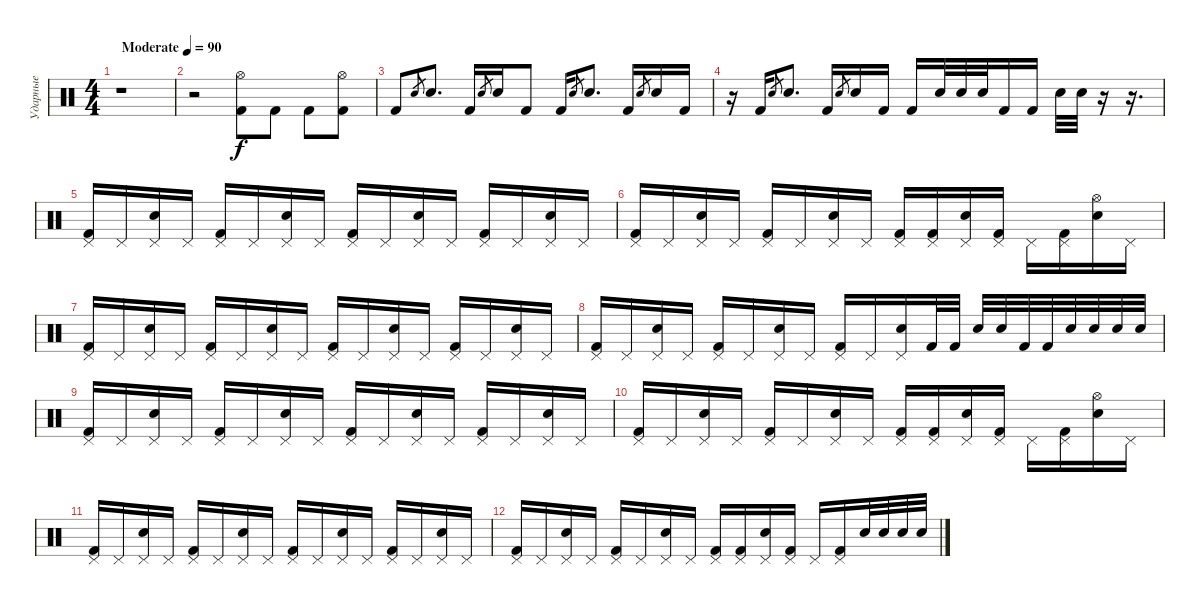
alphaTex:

\track ("Ударные" "Ударные") {instrument percussion}
\staff {score}
\articulation defaults
\ts (4 4)
\tempo (90 "Moderate")
\clef neutral
\ks c
r.1{dy f} |
r.2 ("Hi-Hat (open)" "Kick (hit) 2").8 "Kick (hit) 2".8 "Kick (hit) 2".8 ("Hi-Hat (open)" "Kick (hit) 2").8 |
"Kick (hit) 2".8 "Electric Snare (hit)".8{gr} "Electric Snare (hit)".8{d} "Kick (hit) 2".16 "Electric Snare (hit)".8{gr} "Electric Snare (hit)".16 "Kick (hit) 2".8 "Kick (hit) 2".16 "Electric Snare (hit)".8{gr} "Electric Snare (hit)".8{d} "Kick (hit) 2".16 "Electric Snare (hit)".8{gr} "Electric Snare (hit)".16 "Kick (hit) 2".16 |
r.16 "Kick (hit) 2".16 "Electric Snare (hit)".8{gr} "Electric Snare (hit)".8{d} "Kick (hit) 2".16 "Electric Snare (hit)".8{gr} "Electric Snare (hit)".16 "Kick (hit) 2".16 "Kick (hit) 2".16 "Electric Snare (hit)".32 "Electric Snare (hit)".32 "Electric Snare (hit)".32 "Kick (hit) 2".16 "Kick (hit) 2".16 "Electric Snare (hit)".32 "Electric Snare (hit)".32 r.16 r.16{d} |
("Pedal Hi-Hat (hit)" "Kick (hit) 2").16 "Pedal Hi-Hat (hit)".16 ("Pedal Hi-Hat (hit)" "Electric Snare (hit)").16 "Pedal Hi-Hat (hit)".16 ("Pedal Hi-Hat (hit)" "Kick (hit) 2").16 "Pedal Hi-Hat (hit)".16 ("Pedal Hi-Hat (hit)" "Electric Snare (hit)").16 "Pedal Hi-Hat (hit)".16 ("Pedal Hi-Hat (hit)" "Kick (hit) 2").16 "Pedal Hi-Hat (hit)".16 ("Pedal Hi-Hat (hit)" "Electric Snare (hit)").16 "Pedal Hi-Hat (hit)".16 ("Pedal Hi-Hat (hit)" "Kick (hit) 2").16 "Pedal Hi-Hat (hit)".16 ("Pedal Hi-Hat (hit)" "Electric Snare (hit)").16 "Pedal Hi-Hat (hit)".16 |
("Pedal Hi-Hat (hit)" "Kick (hit) 2").16 "Pedal Hi-Hat (hit)".16 ("Pedal Hi-Hat (hit)" "Electric Snare (hit)").16 "Pedal Hi-Hat (hit)".16 ("Pedal Hi-Hat (hit)" "Kick (hit) 2").16 "Pedal Hi-Hat (hit)".16 ("Pedal Hi-Hat (hit)" "Electric Snare (hit)").16 "Pedal Hi-Hat (hit)".16 ("Pedal Hi-Hat (hit)" "Kick (hit) 2").16 ("Pedal Hi-Hat (hit)" "Kick (hit) 2").16 ("Pedal Hi-Hat (hit)" "Electric Snare (hit)").16 ("Pedal Hi-Hat (hit)" "Kick (hit) 2").16 "Pedal Hi-Hat (hit)".16 ("Pedal Hi-Hat (hit)" "Kick (hit) 2").16 ("Hi-Hat (open)" "Electric Snare (hit)").16 "Pedal Hi-Hat (hit)".16 |
("Pedal Hi-Hat (hit)" "Kick (hit) 2").16 "Pedal Hi-Hat (hit)".16 ("Pedal Hi-Hat (hit)" "Electric Snare (hit)").16 "Pedal Hi-Hat (hit)".16 ("Pedal Hi-Hat (hit)" "Kick (hit) 2").16 "Pedal Hi-Hat (hit)".16 ("Pedal Hi-Hat (hit)" "Electric Snare (hit)").16 "Pedal Hi-Hat (hit)".16 ("Pedal Hi-Hat (hit)" "Kick (hit) 2").16 "Pedal Hi-Hat (hit)".16 ("Pedal Hi-Hat (hit)" "Electric Snare (hit)").16 "Pedal Hi-Hat (hit)".16 ("Pedal Hi-Hat (hit)" "Kick (hit) 2").16 "Pedal Hi-Hat (hit)".16 ("Pedal Hi-Hat (hit)" "Electric Snare (hit)").16 "Pedal Hi-Hat (hit)".16 |
("Pedal Hi-Hat (hit)" "Kick (hit) 2").16 "Pedal Hi-Hat (hit)".16 ("Pedal Hi-Hat (hit)" "Electric Snare (hit)").16 "Pedal Hi-Hat (hit)".16 ("Pedal Hi-Hat (hit)" "Kick (hit) 2").16 "Pedal Hi-Hat (hit)".16 ("Pedal Hi-Hat (hit)" "Electric Snare (hit)").16 "Pedal Hi-Hat (hit)".16 ("Pedal Hi-Hat (hit)" "Kick (hit) 2").16 "Pedal Hi-Hat (hit)".16 ("Pedal Hi-Hat (hit)" "Electric Snare (hit)").16 "Kick (hit) 2".32 "Kick (hit) 2".32 "Electric Snare (hit)".32 "Electric Snare (hit)".32 "Kick (hit) 2".32 "Kick (hit) 2".32 "Electric Snare (hit)".32 "Electric Snare (hit)".32 "Electric Snare (hit)".32 "Electric Snare (hit)".32 |
("Pedal Hi-Hat (hit)" "Kick (hit) 2").16 "Pedal Hi-Hat (hit)".16 ("Pedal Hi-Hat (hit)" "Electric Snare (hit)").16 "Pedal Hi-Hat (hit)".16 ("Pedal Hi-Hat (hit)" "Kick (hit) 2").16 "Pedal Hi-Hat (hit)".16 ("Pedal Hi-Hat (hit)" "Electric Snare (hit)").16 "Pedal Hi-Hat (hit)".16 ("Pedal Hi-Hat (hit)" "Kick (hit) 2").16 "Pedal Hi-Hat (hit)".16 ("Pedal Hi-Hat (hit)" "Electric Snare (hit)").16 "Pedal Hi-Hat (hit)".16 ("Pedal Hi-Hat (hit)" "Kick (hit) 2").16 "Pedal Hi-Hat (hit)".16 ("Pedal Hi-Hat (hit)" "Electric Snare (hit)").16 "Pedal Hi-Hat (hit)".16 |
("Pedal Hi-Hat (hit)" "Kick (hit) 2").16 "Pedal Hi-Hat (hit)".16 ("Pedal Hi-Hat (hit)" "Electric Snare (hit)").16 "Pedal Hi-Hat (hit)".16 ("Pedal Hi-Hat (hit)" "Kick (hit) 2").16 "Pedal Hi-Hat (hit)".16 ("Pedal Hi-Hat (hit)" "Electric Snare (hit)").16 "Pedal Hi-Hat (hit)".16 ("Pedal Hi-Hat (hit)" "Kick (hit) 2").16 ("Pedal Hi-Hat (hit)" "Kick (hit) 2").16 ("Pedal Hi-Hat (hit)" "Electric Snare (hit)").16 ("Pedal Hi-Hat (hit)" "Kick (hit) 2").16 "Pedal Hi-Hat (hit)".16 ("Pedal Hi-Hat (hit)" "Kick (hit) 2").16 ("Hi-Hat (open)" "Electric Snare (hit)").16 "Pedal Hi-Hat (hit)".16 |
("Pedal Hi-Hat (hit)" "Kick (hit) 2").16 "Pedal Hi-Hat (hit)".16 ("Pedal Hi-Hat (hit)" "Electric Snare (hit)").16 "Pedal Hi-Hat (hit)".16 ("Pedal Hi-Hat (hit)" "Kick (hit) 2").16 "Pedal Hi-Hat (hit)".16 ("Pedal Hi-Hat (hit)" "Electric Snare (hit)").16 "Pedal Hi-Hat (hit)".16 ("Pedal Hi-Hat (hit)" "Kick (hit) 2").16 "Pedal Hi-Hat (hit)".16 ("Pedal Hi-Hat (hit)" "Electric Snare (hit)").16 "Pedal Hi-Hat (hit)".16 ("Pedal Hi-Hat (hit)" "Kick (hit) 2").16 "Pedal Hi-Hat (hit)".16 ("Pedal Hi-Hat (hit)" "Electric Snare (hit)").16 "Pedal Hi-Hat (hit)".16 |
("Pedal Hi-Hat (hit)" "Kick (hit) 2").16 "Pedal Hi-Hat (hit)".16 ("Pedal Hi-Hat (hit)" "Electric Snare (hit)").16 "Pedal Hi-Hat (hit)".16 ("Pedal Hi-Hat (hit)" "Kick (hit) 2").16 "Pedal Hi-Hat (hit)".16 ("Pedal Hi-Hat (hit)" "Electric Snare (hit)").16 "Pedal Hi-Hat (hit)".16 ("Pedal Hi-Hat (hit)" "Kick (hit) 2").16 ("Pedal Hi-Hat (hit)" "Kick (hit) 2").16 ("Pedal Hi-Hat (hit)" "Electric Snare (hit)").16 ("Pedal Hi-Hat (hit)" "Kick (hit) 2").16 "Pedal Hi-Hat (hit)".16 ("Pedal Hi-Hat (hit)" "Kick (hit) 2").16 "Electric Snare (hit)".32 "Electric Snare (hit)".32 "Electric Snare (hit)".32 "Electric Snare (hit)".32
